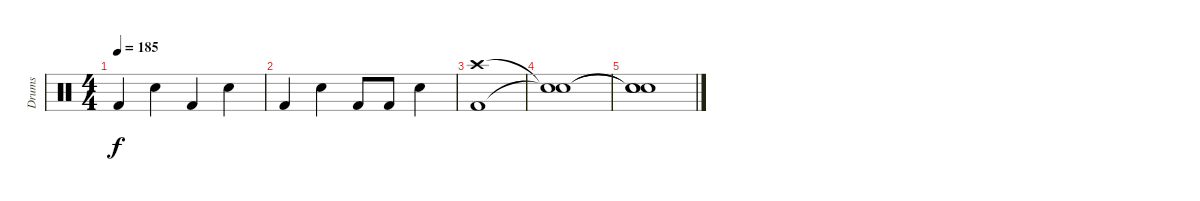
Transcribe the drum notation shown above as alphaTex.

\track ("Drums" "Drums") {instrument percussion}
\staff {score}
\articulation defaults
\ts (4 4)
\tempo 185
\clef neutral
\ks c "Kick (hit) 2".4{dy f} "Electric Snare (hit)".4 "Kick (hit) 2".4 "Electric Snare (hit)".4
|
"Kick (hit) 2".4 "Electric Snare (hit)".4 "Kick (hit) 2".8 "Kick (hit) 2".8 "Electric Snare (hit)".4 |
("Crash high (hit)" "Kick (hit) 2").1 |
("Snare (hit)"{t} "Snare (hit)"{t}).1 |
("Snare (hit)"{t} "Snare (hit)"{t} "Snare (hit)").1
